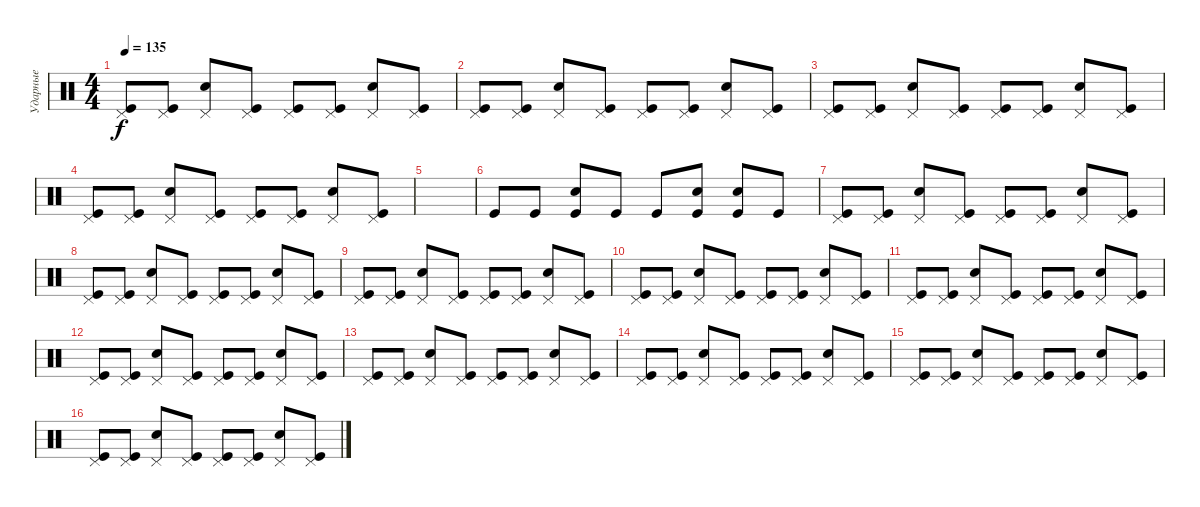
\track ("Ударные" "Ударные") {instrument percussion}
\staff {score}
\articulation defaults
\ts (4 4)
\tempo 135
\clef neutral
\ks c
("Pedal Hi-Hat (hit)" "Kick (hit)").8{dy f} ("Pedal Hi-Hat (hit)" "Kick (hit)").8 ("Pedal Hi-Hat (hit)" "Electric Snare (hit)").8 ("Pedal Hi-Hat (hit)" "Kick (hit)").8 ("Pedal Hi-Hat (hit)" "Kick (hit)").8 ("Pedal Hi-Hat (hit)" "Kick (hit)").8 ("Pedal Hi-Hat (hit)" "Electric Snare (hit)").8 ("Pedal Hi-Hat (hit)" "Kick (hit)").8 |
("Pedal Hi-Hat (hit)" "Kick (hit)").8 ("Pedal Hi-Hat (hit)" "Kick (hit)").8 ("Pedal Hi-Hat (hit)" "Electric Snare (hit)").8 ("Pedal Hi-Hat (hit)" "Kick (hit)").8 ("Pedal Hi-Hat (hit)" "Kick (hit)").8 ("Pedal Hi-Hat (hit)" "Kick (hit)").8 ("Pedal Hi-Hat (hit)" "Electric Snare (hit)").8 ("Pedal Hi-Hat (hit)" "Kick (hit)").8 |
("Pedal Hi-Hat (hit)" "Kick (hit)").8 ("Pedal Hi-Hat (hit)" "Kick (hit)").8 ("Pedal Hi-Hat (hit)" "Electric Snare (hit)").8 ("Pedal Hi-Hat (hit)" "Kick (hit)").8 ("Pedal Hi-Hat (hit)" "Kick (hit)").8 ("Pedal Hi-Hat (hit)" "Kick (hit)").8 ("Pedal Hi-Hat (hit)" "Electric Snare (hit)").8 ("Pedal Hi-Hat (hit)" "Kick (hit)").8 |
("Pedal Hi-Hat (hit)" "Kick (hit)").8 ("Pedal Hi-Hat (hit)" "Kick (hit)").8 ("Pedal Hi-Hat (hit)" "Electric Snare (hit)").8 ("Pedal Hi-Hat (hit)" "Kick (hit)").8 ("Pedal Hi-Hat (hit)" "Kick (hit)").8 ("Pedal Hi-Hat (hit)" "Kick (hit)").8 ("Pedal Hi-Hat (hit)" "Electric Snare (hit)").8 ("Pedal Hi-Hat (hit)" "Kick (hit)").8 |
|
"Kick (hit)".8 "Kick (hit)".8 ("Kick (hit)" "Electric Snare (hit)").8 "Kick (hit)".8 "Kick (hit)".8 ("Kick (hit)" "Electric Snare (hit)").8 ("Kick (hit)" "Electric Snare (hit)").8 "Kick (hit)".8 |
("Pedal Hi-Hat (hit)" "Kick (hit)").8 ("Pedal Hi-Hat (hit)" "Kick (hit)").8 ("Pedal Hi-Hat (hit)" "Electric Snare (hit)").8 ("Pedal Hi-Hat (hit)" "Kick (hit)").8 ("Pedal Hi-Hat (hit)" "Kick (hit)").8 ("Pedal Hi-Hat (hit)" "Kick (hit)").8 ("Pedal Hi-Hat (hit)" "Electric Snare (hit)").8 ("Pedal Hi-Hat (hit)" "Kick (hit)").8 |
("Pedal Hi-Hat (hit)" "Kick (hit)").8 ("Pedal Hi-Hat (hit)" "Kick (hit)").8 ("Pedal Hi-Hat (hit)" "Electric Snare (hit)").8 ("Pedal Hi-Hat (hit)" "Kick (hit)").8 ("Pedal Hi-Hat (hit)" "Kick (hit)").8 ("Pedal Hi-Hat (hit)" "Kick (hit)").8 ("Pedal Hi-Hat (hit)" "Electric Snare (hit)").8 ("Pedal Hi-Hat (hit)" "Kick (hit)").8 |
("Pedal Hi-Hat (hit)" "Kick (hit)").8 ("Pedal Hi-Hat (hit)" "Kick (hit)").8 ("Pedal Hi-Hat (hit)" "Electric Snare (hit)").8 ("Pedal Hi-Hat (hit)" "Kick (hit)").8 ("Pedal Hi-Hat (hit)" "Kick (hit)").8 ("Pedal Hi-Hat (hit)" "Kick (hit)").8 ("Pedal Hi-Hat (hit)" "Electric Snare (hit)").8 ("Pedal Hi-Hat (hit)" "Kick (hit)").8 |
("Pedal Hi-Hat (hit)" "Kick (hit)").8 ("Pedal Hi-Hat (hit)" "Kick (hit)").8 ("Pedal Hi-Hat (hit)" "Electric Snare (hit)").8 ("Pedal Hi-Hat (hit)" "Kick (hit)").8 ("Pedal Hi-Hat (hit)" "Kick (hit)").8 ("Pedal Hi-Hat (hit)" "Kick (hit)").8 ("Pedal Hi-Hat (hit)" "Electric Snare (hit)").8 ("Pedal Hi-Hat (hit)" "Kick (hit)").8 |
("Pedal Hi-Hat (hit)" "Kick (hit)").8 ("Pedal Hi-Hat (hit)" "Kick (hit)").8 ("Pedal Hi-Hat (hit)" "Electric Snare (hit)").8 ("Pedal Hi-Hat (hit)" "Kick (hit)").8 ("Pedal Hi-Hat (hit)" "Kick (hit)").8 ("Pedal Hi-Hat (hit)" "Kick (hit)").8 ("Pedal Hi-Hat (hit)" "Electric Snare (hit)").8 ("Pedal Hi-Hat (hit)" "Kick (hit)").8 |
("Pedal Hi-Hat (hit)" "Kick (hit)").8 ("Pedal Hi-Hat (hit)" "Kick (hit)").8 ("Pedal Hi-Hat (hit)" "Electric Snare (hit)").8 ("Pedal Hi-Hat (hit)" "Kick (hit)").8 ("Pedal Hi-Hat (hit)" "Kick (hit)").8 ("Pedal Hi-Hat (hit)" "Kick (hit)").8 ("Pedal Hi-Hat (hit)" "Electric Snare (hit)").8 ("Pedal Hi-Hat (hit)" "Kick (hit)").8 |
("Pedal Hi-Hat (hit)" "Kick (hit)").8 ("Pedal Hi-Hat (hit)" "Kick (hit)").8 ("Pedal Hi-Hat (hit)" "Electric Snare (hit)").8 ("Pedal Hi-Hat (hit)" "Kick (hit)").8 ("Pedal Hi-Hat (hit)" "Kick (hit)").8 ("Pedal Hi-Hat (hit)" "Kick (hit)").8 ("Pedal Hi-Hat (hit)" "Electric Snare (hit)").8 ("Pedal Hi-Hat (hit)" "Kick (hit)").8 |
("Pedal Hi-Hat (hit)" "Kick (hit)").8 ("Pedal Hi-Hat (hit)" "Kick (hit)").8 ("Pedal Hi-Hat (hit)" "Electric Snare (hit)").8 ("Pedal Hi-Hat (hit)" "Kick (hit)").8 ("Pedal Hi-Hat (hit)" "Kick (hit)").8 ("Pedal Hi-Hat (hit)" "Kick (hit)").8 ("Pedal Hi-Hat (hit)" "Electric Snare (hit)").8 ("Pedal Hi-Hat (hit)" "Kick (hit)").8 |
("Pedal Hi-Hat (hit)" "Kick (hit)").8 ("Pedal Hi-Hat (hit)" "Kick (hit)").8 ("Pedal Hi-Hat (hit)" "Electric Snare (hit)").8 ("Pedal Hi-Hat (hit)" "Kick (hit)").8 ("Pedal Hi-Hat (hit)" "Kick (hit)").8 ("Pedal Hi-Hat (hit)" "Kick (hit)").8 ("Pedal Hi-Hat (hit)" "Electric Snare (hit)").8 ("Pedal Hi-Hat (hit)" "Kick (hit)").8 |
("Pedal Hi-Hat (hit)" "Kick (hit)").8 ("Pedal Hi-Hat (hit)" "Kick (hit)").8 ("Pedal Hi-Hat (hit)" "Electric Snare (hit)").8 ("Pedal Hi-Hat (hit)" "Kick (hit)").8 ("Pedal Hi-Hat (hit)" "Kick (hit)").8 ("Pedal Hi-Hat (hit)" "Kick (hit)").8 ("Pedal Hi-Hat (hit)" "Electric Snare (hit)").8 ("Pedal Hi-Hat (hit)" "Kick (hit)").8
